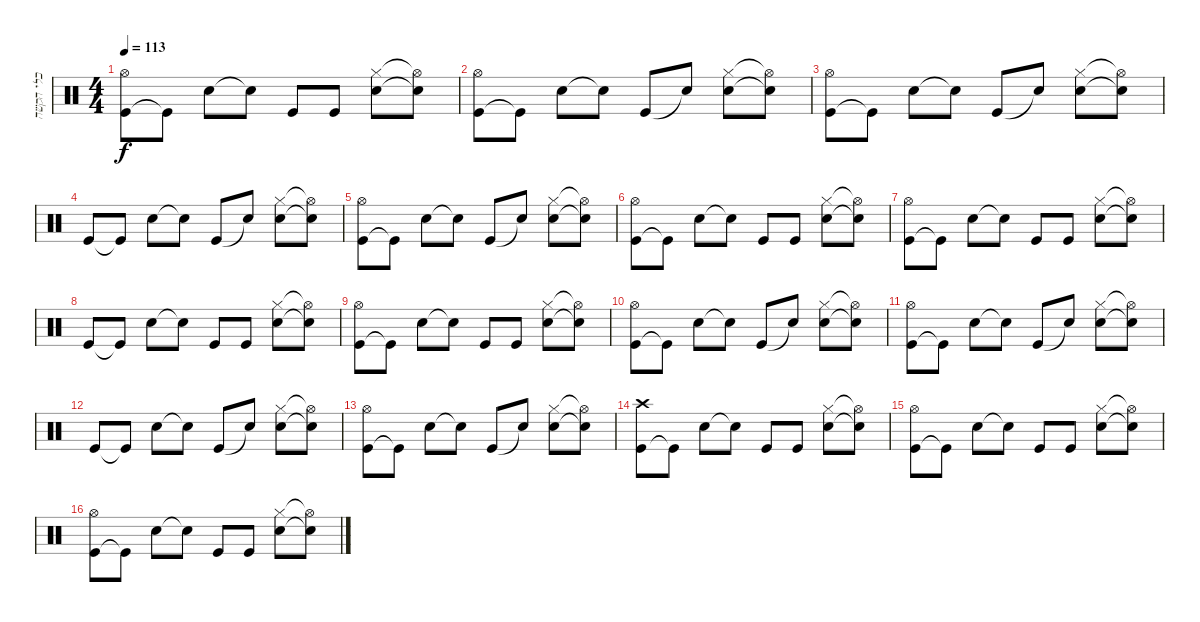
\track ("כלי הקשה" "כלי הקשה") {instrument percussion}
\staff {score}
\articulation defaults
\ts (4 4)
\tempo 113
\clef neutral
\ks c
("Kick (hit)" "Hi-Hat (open)").8{dy f} "Kick (hit)"{t}.8 "Electric Snare (hit)".8 "Snare (hit)"{t}.8 "Kick (hit)".8 "Kick (hit)".8 ("Snare (hit) 2" "Hi-Hat (closed)").8 ("Snare (hit)"{t} "Hi-Hat (open)"{t}).8 |
("Kick (hit)" "Hi-Hat (open)").8 "Kick (hit)"{t}.8 "Electric Snare (hit)".8 "Snare (hit)"{t}.8 "Kick (hit)".8 "Snare (hit)"{t}.8 ("Electric Snare (hit)" "Hi-Hat (closed)").8 ("Snare (hit)"{t} "Hi-Hat (open)"{t}).8 |
("Kick (hit)" "Hi-Hat (open)").8 "Kick (hit)"{t}.8 "Electric Snare (hit)".8 "Snare (hit)"{t}.8 "Kick (hit)".8 "Snare (hit)"{t}.8 ("Electric Snare (hit)" "Hi-Hat (closed)").8 ("Snare (hit)"{t} "Hi-Hat (open)"{t}).8 |
"Kick (hit)".8 "Kick (hit)"{t}.8 "Electric Snare (hit)".8 "Snare (hit)"{t}.8 "Kick (hit)".8 "Snare (hit)"{t}.8 ("Electric Snare (hit)" "Hi-Hat (closed)").8 ("Snare (hit)"{t} "Hi-Hat (open)"{t}).8 |
("Kick (hit)" "Hi-Hat (open)").8 "Kick (hit)"{t}.8 "Electric Snare (hit)".8 "Snare (hit)"{t}.8 "Kick (hit)".8 "Snare (hit)"{t}.8 ("Electric Snare (hit)" "Hi-Hat (closed)").8 ("Snare (hit)"{t} "Hi-Hat (open)"{t}).8 |
("Kick (hit)" "Hi-Hat (open)").8 "Kick (hit)"{t}.8 "Electric Snare (hit)".8 "Snare (hit)"{t}.8 "Kick (hit)".8 "Kick (hit)".8 ("Snare (hit) 2" "Hi-Hat (closed)").8 ("Snare (hit)"{t} "Hi-Hat (open)"{t}).8 |
("Kick (hit)" "Hi-Hat (open)").8 "Kick (hit)"{t}.8 "Electric Snare (hit)".8 "Snare (hit)"{t}.8 "Kick (hit)".8 "Kick (hit)".8 ("Snare (hit) 2" "Hi-Hat (closed)").8 ("Snare (hit)"{t} "Hi-Hat (open)"{t}).8 |
"Kick (hit)".8 "Kick (hit)"{t}.8 "Electric Snare (hit)".8 "Snare (hit)"{t}.8 "Kick (hit)".8 "Kick (hit)".8 ("Snare (hit) 2" "Hi-Hat (closed)").8 ("Snare (hit)"{t} "Hi-Hat (open)"{t}).8 |
("Kick (hit)" "Hi-Hat (open)").8 "Kick (hit)"{t}.8 "Electric Snare (hit)".8 "Snare (hit)"{t}.8 "Kick (hit)".8 "Kick (hit)".8 ("Snare (hit) 2" "Hi-Hat (closed)").8 ("Snare (hit)"{t} "Hi-Hat (open)"{t}).8 |
("Kick (hit)" "Hi-Hat (open)").8 "Kick (hit)"{t}.8 "Electric Snare (hit)".8 "Snare (hit)"{t}.8 "Kick (hit)".8 "Snare (hit)"{t}.8 ("Electric Snare (hit)" "Hi-Hat (closed)").8 ("Snare (hit)"{t} "Hi-Hat (open)"{t}).8 |
("Kick (hit)" "Hi-Hat (open)").8 "Kick (hit)"{t}.8 "Electric Snare (hit)".8 "Snare (hit)"{t}.8 "Kick (hit)".8 "Snare (hit)"{t}.8 ("Electric Snare (hit)" "Hi-Hat (closed)").8 ("Snare (hit)"{t} "Hi-Hat (open)"{t}).8 |
"Kick (hit)".8 "Kick (hit)"{t}.8 "Electric Snare (hit)".8 "Snare (hit)"{t}.8 "Kick (hit)".8 "Snare (hit)"{t}.8 ("Electric Snare (hit)" "Hi-Hat (closed)").8 ("Snare (hit)"{t} "Hi-Hat (open)"{t}).8 |
("Kick (hit)" "Hi-Hat (open)").8 "Kick (hit)"{t}.8 "Electric Snare (hit)".8 "Snare (hit)"{t}.8 "Kick (hit)".8 "Snare (hit)"{t}.8 ("Electric Snare (hit)" "Hi-Hat (closed)").8 ("Snare (hit)"{t} "Hi-Hat (open)"{t}).8 |
("Kick (hit)" "Crash high (hit)").8 "Kick (hit)"{t}.8 "Electric Snare (hit)".8 "Snare (hit)"{t}.8 "Kick (hit)".8 "Kick (hit)".8 ("Snare (hit) 2" "Hi-Hat (closed)").8 ("Snare (hit)"{t} "Hi-Hat (open)"{t}).8 |
("Kick (hit)" "Hi-Hat (open)").8 "Kick (hit)"{t}.8 "Electric Snare (hit)".8 "Snare (hit)"{t}.8 "Kick (hit)".8 "Kick (hit)".8 ("Snare (hit) 2" "Hi-Hat (closed)").8 ("Snare (hit)"{t} "Hi-Hat (open)"{t}).8 |
("Kick (hit)" "Hi-Hat (open)").8 "Kick (hit)"{t}.8 "Electric Snare (hit)".8 "Snare (hit)"{t}.8 "Kick (hit)".8 "Kick (hit)".8 ("Snare (hit) 2" "Hi-Hat (closed)").8 ("Snare (hit)"{t} "Hi-Hat (open)"{t}).8
